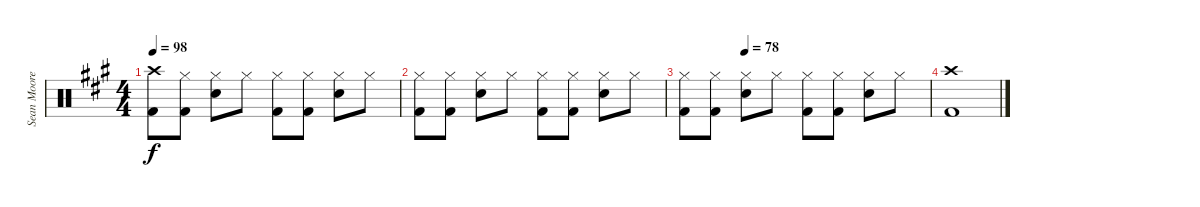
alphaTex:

\track ("Sean Moore (Drums)" "Sean Moore") {instrument percussion}
\staff {score}
\articulation defaults
\ts (4 4)
\tempo 98
\clef neutral
\ks a
("Crash high (hit)" "Kick (hit) 2").8{dy f} ("Hi-Hat (closed)" "Kick (hit) 2").8 ("Hi-Hat (closed)" "Electric Snare (hit)").8 "Hi-Hat (closed)".8 ("Hi-Hat (closed)" "Kick (hit) 2").8 ("Hi-Hat (closed)" "Kick (hit) 2").8 ("Hi-Hat (closed)" "Electric Snare (hit)").8 "Hi-Hat (closed)".8 |
("Hi-Hat (closed)" "Kick (hit) 2").8 ("Hi-Hat (closed)" "Kick (hit) 2").8 ("Hi-Hat (closed)" "Electric Snare (hit)").8 "Hi-Hat (closed)".8 ("Hi-Hat (closed)" "Kick (hit) 2").8 ("Hi-Hat (closed)" "Kick (hit) 2").8 ("Hi-Hat (closed)" "Electric Snare (hit)").8 "Hi-Hat (closed)".8 |
\tempo (78 0.25)
("Hi-Hat (closed)" "Kick (hit) 2").8 ("Hi-Hat (closed)" "Kick (hit) 2").8 ("Hi-Hat (closed)" "Electric Snare (hit)").8 "Hi-Hat (closed)".8 ("Hi-Hat (closed)" "Kick (hit) 2").8 ("Hi-Hat (closed)" "Kick (hit) 2").8 ("Hi-Hat (closed)" "Electric Snare (hit)").8 "Hi-Hat (closed)".8 |
("Crash high (hit)" "Kick (hit) 2").1
